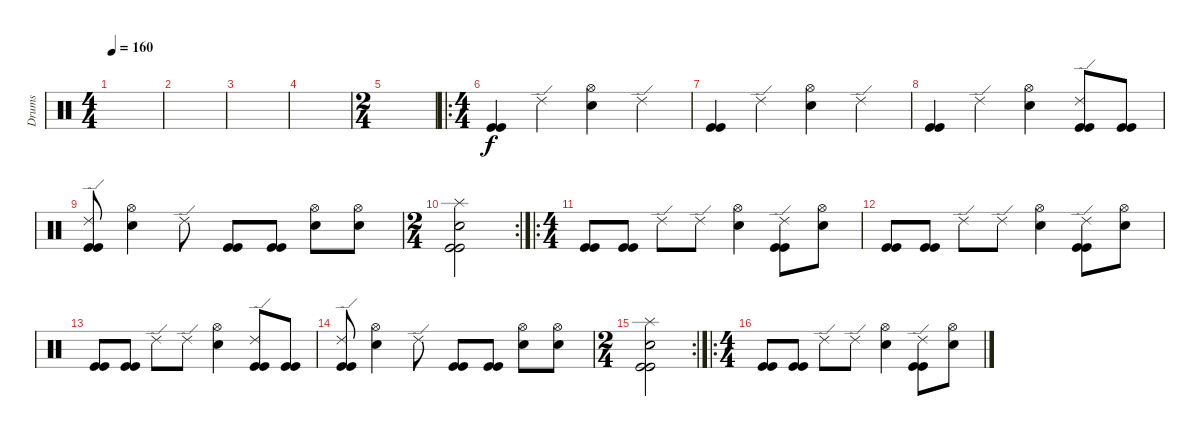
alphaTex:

\track ("Drums" "Drums") {instrument percussion}
\staff {score}
\articulation defaults
\ts (4 4)
\tempo 160
\clef neutral
\ks c
|
|
|
|
\ts (2 4)
|
\ro
\ts (4 4)
("Kick (hit)" "Kick (hit)").4 "Ride (edge) 2".4 ("Hi-Hat (open)" "Snare (hit) 2").4 "Ride (edge) 2".4 |
("Kick (hit)" "Kick (hit)").4 "Ride (edge) 2".4 ("Hi-Hat (open)" "Snare (hit) 2").4 "Ride (edge) 2".4 |
("Kick (hit)" "Kick (hit)").4 "Ride (edge) 2".4 ("Hi-Hat (open)" "Snare (hit) 2").4 ("Ride (edge) 2" "Kick (hit)" "Kick (hit)").8 ("Kick (hit)" "Kick (hit)").8 |
("Ride (edge) 2" "Kick (hit)" "Kick (hit)").8 ("Hi-Hat (open)" "Snare (hit) 2").4 "Ride (edge) 2".8 ("Kick (hit)" "Kick (hit)").8 ("Kick (hit)" "Kick (hit)").8 ("Hi-Hat (open)" "Snare (hit) 2").8 ("Hi-Hat (open)" "Snare (hit) 2").8 |
\rc 2
\ts (2 4)
("Splash (hit)" "Snare (hit) 2" "Kick (hit)" "Kick (hit)").2 |
\ro
\ts (4 4)
("Kick (hit)" "Kick (hit)").8 ("Kick (hit)" "Kick (hit)").8 "Ride (edge) 2".8 "Ride (edge) 2".8 ("Hi-Hat (open)" "Snare (hit) 2").4 ("Ride (edge) 2" "Kick (hit)" "Kick (hit)").8 ("Hi-Hat (open)" "Snare (hit) 2").8 |
("Kick (hit)" "Kick (hit)").8 ("Kick (hit)" "Kick (hit)").8 "Ride (edge) 2".8 "Ride (edge) 2".8 ("Hi-Hat (open)" "Snare (hit) 2").4 ("Ride (edge) 2" "Kick (hit)" "Kick (hit)").8 ("Hi-Hat (open)" "Snare (hit) 2").8 |
("Kick (hit)" "Kick (hit)").8 ("Kick (hit)" "Kick (hit)").8 "Ride (edge) 2".8 "Ride (edge) 2".8 ("Hi-Hat (open)" "Snare (hit) 2").4 ("Ride (edge) 2" "Kick (hit)" "Kick (hit)").8 ("Kick (hit)" "Kick (hit)").8 |
("Ride (edge) 2" "Kick (hit)" "Kick (hit)").8 ("Hi-Hat (open)" "Snare (hit) 2").4 "Ride (edge) 2".8 ("Kick (hit)" "Kick (hit)").8 ("Kick (hit)" "Kick (hit)").8 ("Hi-Hat (open)" "Snare (hit) 2").8 ("Hi-Hat (open)" "Snare (hit) 2").8 |
\rc 2
\ts (2 4)
("Splash (hit)" "Snare (hit) 2" "Kick (hit)" "Kick (hit)").2 |
\ro
\ts (4 4)
("Kick (hit)" "Kick (hit)").8 ("Kick (hit)" "Kick (hit)").8 "Ride (edge) 2".8 "Ride (edge) 2".8 ("Hi-Hat (open)" "Snare (hit) 2").4 ("Ride (edge) 2" "Kick (hit)" "Kick (hit)").8 ("Hi-Hat (open)" "Snare (hit) 2").8
